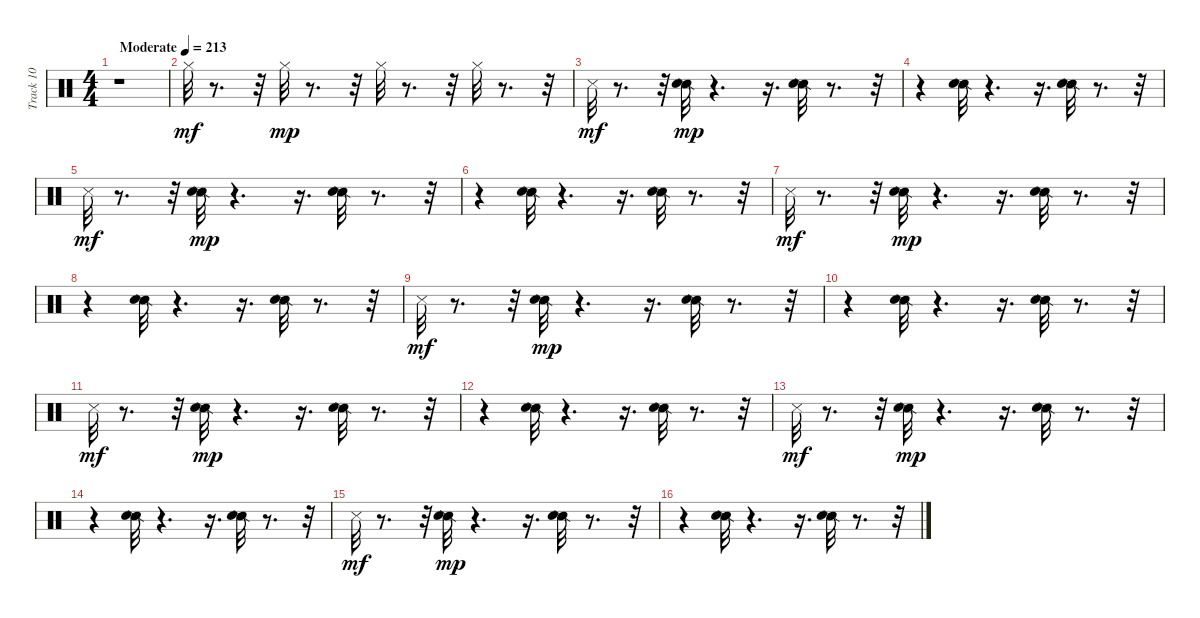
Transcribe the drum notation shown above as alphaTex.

\track ("Track 10" "Track 10") {instrument percussion}
\staff {score}
\articulation defaults
\ts (4 4)
\tempo (213 "Moderate")
\clef neutral
\ks c
r.1{dy mf} |
"Hi-Hat (closed)".32 r.8{d} r.32 "Hi-Hat (closed)".32{dy mp} r.8{d} r.32 "Hi-Hat (closed)".32 r.8{d} r.32 "Hi-Hat (closed)".32 r.8{d} r.32 |
"Snare (side stick) 3".32{dy mf} r.8{d} r.32 ("Snare (side stick) 2" "Hand Clap (hit)").32{dy mp} r.4{d} r.16{d} ("Snare (side stick) 2" "Hand Clap (hit)").32 r.8{d} r.32 |
r.4 ("Snare (side stick) 2" "Hand Clap (hit)").32 r.4{d} r.16{d} ("Snare (side stick) 2" "Hand Clap (hit)").32 r.8{d} r.32 |
"Snare (side stick) 3".32{dy mf} r.8{d} r.32 ("Snare (side stick) 2" "Hand Clap (hit)").32{dy mp} r.4{d} r.16{d} ("Snare (side stick) 2" "Hand Clap (hit)").32 r.8{d} r.32 |
r.4 ("Snare (side stick) 2" "Hand Clap (hit)").32 r.4{d} r.16{d} ("Snare (side stick) 2" "Hand Clap (hit)").32 r.8{d} r.32 |
"Snare (side stick) 3".32{dy mf} r.8{d} r.32 ("Snare (side stick) 2" "Hand Clap (hit)").32{dy mp} r.4{d} r.16{d} ("Snare (side stick) 2" "Hand Clap (hit)").32 r.8{d} r.32 |
r.4 ("Snare (side stick) 2" "Hand Clap (hit)").32 r.4{d} r.16{d} ("Snare (side stick) 2" "Hand Clap (hit)").32 r.8{d} r.32 |
"Snare (side stick) 3".32{dy mf} r.8{d} r.32 ("Snare (side stick) 2" "Hand Clap (hit)").32{dy mp} r.4{d} r.16{d} ("Snare (side stick) 2" "Hand Clap (hit)").32 r.8{d} r.32 |
r.4 ("Snare (side stick) 2" "Hand Clap (hit)").32 r.4{d} r.16{d} ("Snare (side stick) 2" "Hand Clap (hit)").32 r.8{d} r.32 |
"Snare (side stick) 3".32{dy mf} r.8{d} r.32 ("Snare (side stick) 2" "Hand Clap (hit)").32{dy mp} r.4{d} r.16{d} ("Snare (side stick) 2" "Hand Clap (hit)").32 r.8{d} r.32 |
r.4 ("Snare (side stick) 2" "Hand Clap (hit)").32 r.4{d} r.16{d} ("Snare (side stick) 2" "Hand Clap (hit)").32 r.8{d} r.32 |
"Snare (side stick) 3".32{dy mf} r.8{d} r.32 ("Snare (side stick) 2" "Hand Clap (hit)").32{dy mp} r.4{d} r.16{d} ("Snare (side stick) 2" "Hand Clap (hit)").32 r.8{d} r.32 |
r.4 ("Snare (side stick) 2" "Hand Clap (hit)").32 r.4{d} r.16{d} ("Snare (side stick) 2" "Hand Clap (hit)").32 r.8{d} r.32 |
"Snare (side stick) 3".32{dy mf} r.8{d} r.32 ("Snare (side stick) 2" "Hand Clap (hit)").32{dy mp} r.4{d} r.16{d} ("Snare (side stick) 2" "Hand Clap (hit)").32 r.8{d} r.32 |
r.4 ("Snare (side stick) 2" "Hand Clap (hit)").32 r.4{d} r.16{d} ("Snare (side stick) 2" "Hand Clap (hit)").32 r.8{d} r.32
